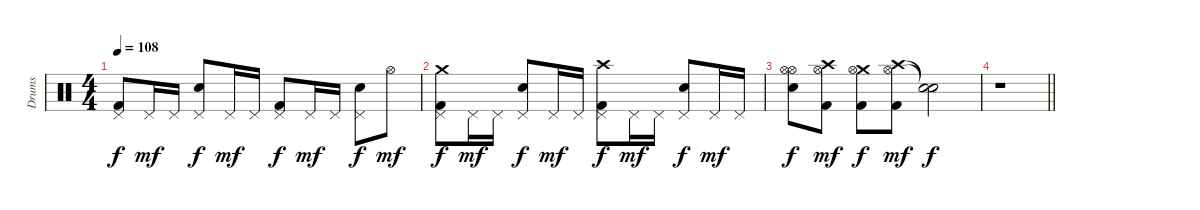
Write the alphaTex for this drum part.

\track ("Drums" "Drums") {instrument percussion}
\staff {score}
\articulation defaults
\ts (4 4)
\tempo 108
\clef neutral
\ks c
("Pedal Hi-Hat (hit)" "Kick (hit) 2").8{dy f} "Pedal Hi-Hat (hit)".16{dy mf} "Pedal Hi-Hat (hit)".16 ("Pedal Hi-Hat (hit)" "Snare (hit) 2").8{dy f} "Pedal Hi-Hat (hit)".16{dy mf} "Pedal Hi-Hat (hit)".16 ("Pedal Hi-Hat (hit)" "Kick (hit) 2").8{dy f} "Pedal Hi-Hat (hit)".16{dy mf} "Pedal Hi-Hat (hit)".16 ("Pedal Hi-Hat (hit)" "Snare (hit) 2").8{dy f} "Hi-Hat (open)".8{dy mf} |
("Crash medium (hit)" "Pedal Hi-Hat (hit)" "Kick (hit) 2").8{dy f} "Pedal Hi-Hat (hit)".16{dy mf} "Pedal Hi-Hat (hit)".16 ("Pedal Hi-Hat (hit)" "Snare (hit) 2").8{dy f} "Pedal Hi-Hat (hit)".16{dy mf} "Pedal Hi-Hat (hit)".16 ("Crash high (hit)" "Pedal Hi-Hat (hit)" "Kick (hit) 2").8{dy f} "Pedal Hi-Hat (hit)".16{dy mf} "Pedal Hi-Hat (hit)".16 ("Pedal Hi-Hat (hit)" "Snare (hit) 2").8{dy f} "Pedal Hi-Hat (hit)".16{dy mf} "Pedal Hi-Hat (hit)".16 |
("Hi-Hat (open)" "Hi-Hat (open)" "Snare (hit) 2").8{dy f} ("Crash high (hit)" "Hi-Hat (open)" "Kick (hit) 2").8{dy mf} ("Crash medium (hit)" "Hi-Hat (open)" "Kick (hit) 2").8{dy f} ("Crash high (hit)" "Hi-Hat (open)" "Kick (hit) 2").8{dy mf} ("Snare (hit)"{t} "Snare (hit)"{t}).2{dy f} |
\barLineRight lightlight
r.1
